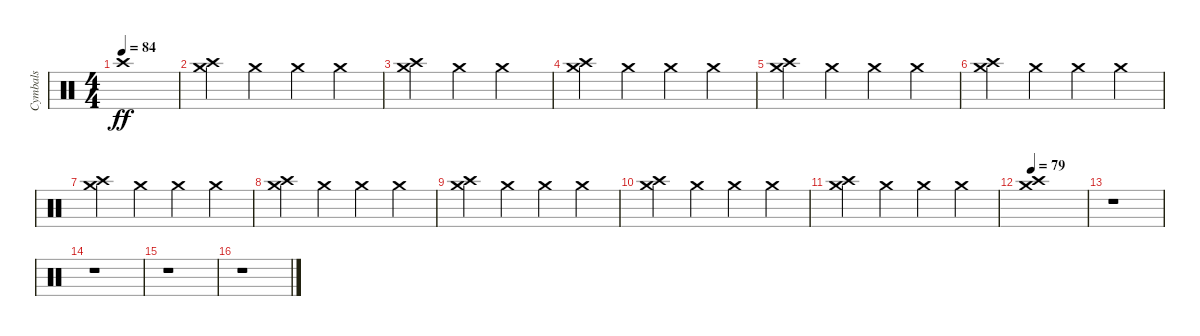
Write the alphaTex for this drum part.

\track ("Cymbals" "Cymbals") {instrument percussion}
\staff {score}
\articulation defaults
\ts (4 4)
\tempo 84
\clef neutral
\ks c "Crash high (hit)".1{dy ff}
|
("Crash medium (hit)" "Crash high (hit)").4 "Crash medium (hit)".4 "Crash medium (hit)".4 "Crash medium (hit)".4 |
("Crash medium (hit)" "Crash high (hit)").4 "Crash medium (hit)".4 "Crash medium (hit)".2 |
("Crash medium (hit)" "Crash high (hit)").4 "Crash medium (hit)".4 "Crash medium (hit)".4 "Crash medium (hit)".4 |
("Crash medium (hit)" "Crash high (hit)").4 "Crash medium (hit)".4 "Crash medium (hit)".4 "Crash medium (hit)".4 |
("Crash medium (hit)" "Crash high (hit)").4 "Crash medium (hit)".4 "Crash medium (hit)".4 "Crash medium (hit)".4 |
("Crash medium (hit)" "Crash high (hit)").4 "Crash medium (hit)".4 "Crash medium (hit)".4 "Crash medium (hit)".4 |
("Crash medium (hit)" "Crash high (hit)").4 "Crash medium (hit)".4 "Crash medium (hit)".4 "Crash medium (hit)".4 |
("Crash medium (hit)" "Crash high (hit)").4 "Crash medium (hit)".4 "Crash medium (hit)".4 "Crash medium (hit)".4 |
("Crash medium (hit)" "Crash high (hit)").4 "Crash medium (hit)".4 "Crash medium (hit)".4 "Crash medium (hit)".4 |
("Crash medium (hit)" "Crash high (hit)").4 "Crash medium (hit)".4 "Crash medium (hit)".4 "Crash medium (hit)".4 |
\tempo 79
("Crash medium (hit)" "Crash high (hit)").1 |
r.1 |
r.1 |
r.1 |
r.1
